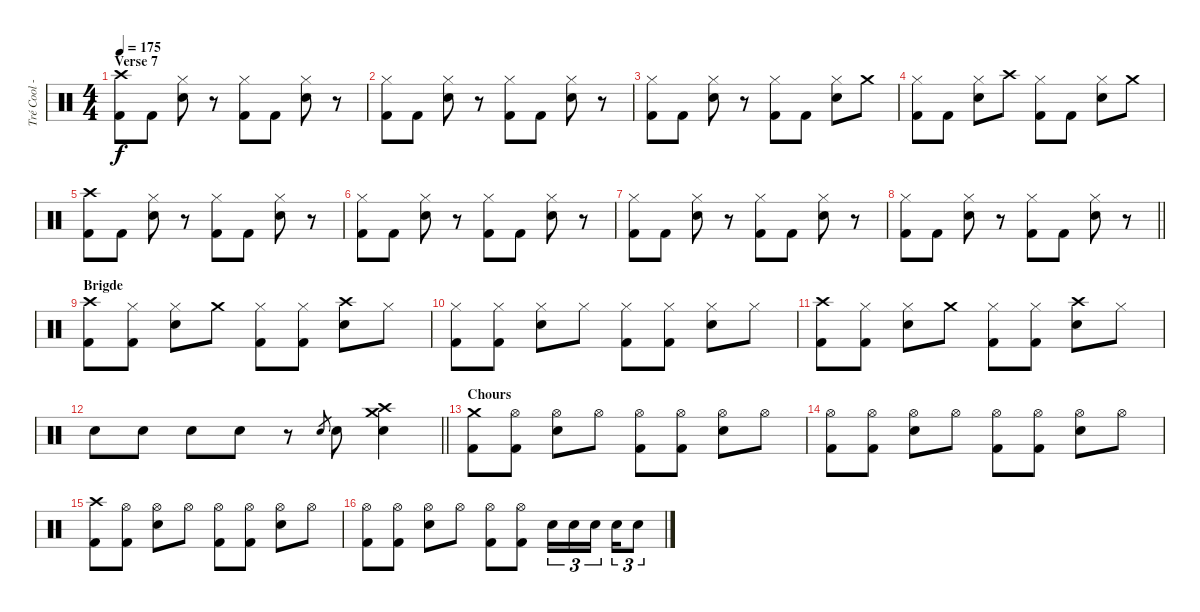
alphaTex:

\track ("Tré Cool - Drums" "Tré Cool -") {instrument percussion}
\staff {score}
\articulation defaults
\ts (4 4)
\section ("" "Verse 7")
\tempo 175
\clef neutral
\ks c
("Crash high (hit)" "Kick (hit) 2").8{dy f} "Kick (hit) 2".8 ("Hi-Hat (closed)" "Electric Snare (hit)").8 r.8 ("Hi-Hat (closed)" "Kick (hit) 2").8 "Kick (hit) 2".8 ("Hi-Hat (closed)" "Electric Snare (hit)").8 r.8 |
("Hi-Hat (closed)" "Kick (hit) 2").8 "Kick (hit) 2".8 ("Hi-Hat (closed)" "Electric Snare (hit)").8 r.8 ("Hi-Hat (closed)" "Kick (hit) 2").8 "Kick (hit) 2".8 ("Hi-Hat (closed)" "Electric Snare (hit)").8 r.8 |
("Hi-Hat (closed)" "Kick (hit) 2").8 "Kick (hit) 2".8 ("Hi-Hat (closed)" "Electric Snare (hit)").8 r.8 ("Hi-Hat (closed)" "Kick (hit) 2").8 "Kick (hit) 2".8 ("Hi-Hat (closed)" "Electric Snare (hit)").8 "Crash medium (hit)".8 |
("Hi-Hat (closed)" "Kick (hit) 2").8 "Kick (hit) 2".8 ("Hi-Hat (closed)" "Electric Snare (hit)").8 "Crash high (hit)".8 ("Hi-Hat (closed)" "Kick (hit) 2").8 "Kick (hit) 2".8 ("Hi-Hat (closed)" "Electric Snare (hit)").8 "Crash medium (hit)".8 |
("Crash high (hit)" "Kick (hit) 2").8 "Kick (hit) 2".8 ("Hi-Hat (closed)" "Electric Snare (hit)").8 r.8 ("Hi-Hat (closed)" "Kick (hit) 2").8 "Kick (hit) 2".8 ("Hi-Hat (closed)" "Electric Snare (hit)").8 r.8 |
("Hi-Hat (closed)" "Kick (hit) 2").8 "Kick (hit) 2".8 ("Hi-Hat (closed)" "Electric Snare (hit)").8 r.8 ("Hi-Hat (closed)" "Kick (hit) 2").8 "Kick (hit) 2".8 ("Hi-Hat (closed)" "Electric Snare (hit)").8 r.8 |
("Hi-Hat (closed)" "Kick (hit) 2").8 "Kick (hit) 2".8 ("Hi-Hat (closed)" "Electric Snare (hit)").8 r.8 ("Hi-Hat (closed)" "Kick (hit) 2").8 "Kick (hit) 2".8 ("Hi-Hat (closed)" "Electric Snare (hit)").8 r.8 |
\barLineRight lightlight
("Hi-Hat (closed)" "Kick (hit) 2").8 "Kick (hit) 2".8 ("Hi-Hat (closed)" "Electric Snare (hit)").8 r.8 ("Hi-Hat (closed)" "Kick (hit) 2").8 "Kick (hit) 2".8 ("Hi-Hat (closed)" "Electric Snare (hit)").8 r.8 |
\section ("" "Brigde")
("Crash high (hit)" "Kick (hit) 2").8 ("Hi-Hat (closed)" "Kick (hit) 2").8 ("Hi-Hat (closed)" "Electric Snare (hit)").8 "Crash medium (hit)".8 ("Hi-Hat (closed)" "Kick (hit) 2").8 ("Hi-Hat (closed)" "Kick (hit) 2").8 ("Crash high (hit)" "Electric Snare (hit)").8 "Hi-Hat (closed)".8 |
("Hi-Hat (closed)" "Kick (hit) 2").8 ("Hi-Hat (closed)" "Kick (hit) 2").8 ("Hi-Hat (closed)" "Electric Snare (hit)").8 "Hi-Hat (closed)".8 ("Hi-Hat (closed)" "Kick (hit) 2").8 ("Hi-Hat (closed)" "Kick (hit) 2").8 ("Hi-Hat (closed)" "Electric Snare (hit)").8 "Hi-Hat (closed)".8 |
("Crash high (hit)" "Kick (hit) 2").8 ("Hi-Hat (closed)" "Kick (hit) 2").8 ("Hi-Hat (closed)" "Electric Snare (hit)").8 "Crash medium (hit)".8 ("Hi-Hat (closed)" "Kick (hit) 2").8 ("Hi-Hat (closed)" "Kick (hit) 2").8 ("Crash high (hit)" "Electric Snare (hit)").8 "Hi-Hat (closed)".8 |
\barLineRight lightlight "Electric Snare (hit)".8 "Electric Snare (hit)".8 "Electric Snare (hit)".8 "Electric Snare (hit)".8
r.8 "Electric Snare (hit)".8{gr} "Electric Snare (hit)".8 ("Crash medium (hit)" "Crash high (hit)" "Electric Snare (hit)").4 |
\section ("" "Chours")
("Crash medium (hit)" "Kick (hit) 2").8 ("Hi-Hat (open)" "Kick (hit) 2").8 ("Hi-Hat (open)" "Electric Snare (hit)").8 "Hi-Hat (open)".8 ("Hi-Hat (open)" "Kick (hit) 2").8 ("Hi-Hat (open)" "Kick (hit) 2").8 ("Hi-Hat (open)" "Electric Snare (hit)").8 "Hi-Hat (open)".8 |
("Hi-Hat (open)" "Kick (hit) 2").8 ("Hi-Hat (open)" "Kick (hit) 2").8 ("Hi-Hat (open)" "Electric Snare (hit)").8 "Hi-Hat (open)".8 ("Hi-Hat (open)" "Kick (hit) 2").8 ("Hi-Hat (open)" "Kick (hit) 2").8 ("Hi-Hat (open)" "Electric Snare (hit)").8 "Hi-Hat (open)".8 |
("Crash high (hit)" "Kick (hit) 2").8 ("Hi-Hat (open)" "Kick (hit) 2").8 ("Hi-Hat (open)" "Electric Snare (hit)").8 "Hi-Hat (open)".8 ("Hi-Hat (open)" "Kick (hit) 2").8 ("Hi-Hat (open)" "Kick (hit) 2").8 ("Hi-Hat (open)" "Electric Snare (hit)").8 "Hi-Hat (open)".8 |
("Hi-Hat (open)" "Kick (hit) 2").8 ("Hi-Hat (open)" "Kick (hit) 2").8 ("Hi-Hat (open)" "Electric Snare (hit)").8 "Hi-Hat (open)".8 ("Hi-Hat (open)" "Kick (hit) 2").8 ("Hi-Hat (open)" "Kick (hit) 2").8 "Electric Snare (hit)".16{tu (3 2)} "Electric Snare (hit)".16{tu (3 2)} "Electric Snare (hit)".16{tu (3 2) beam splitsecondary} "Electric Snare (hit)".16{tu (3 2)} "Electric Snare (hit)".8{tu (3 2)}
